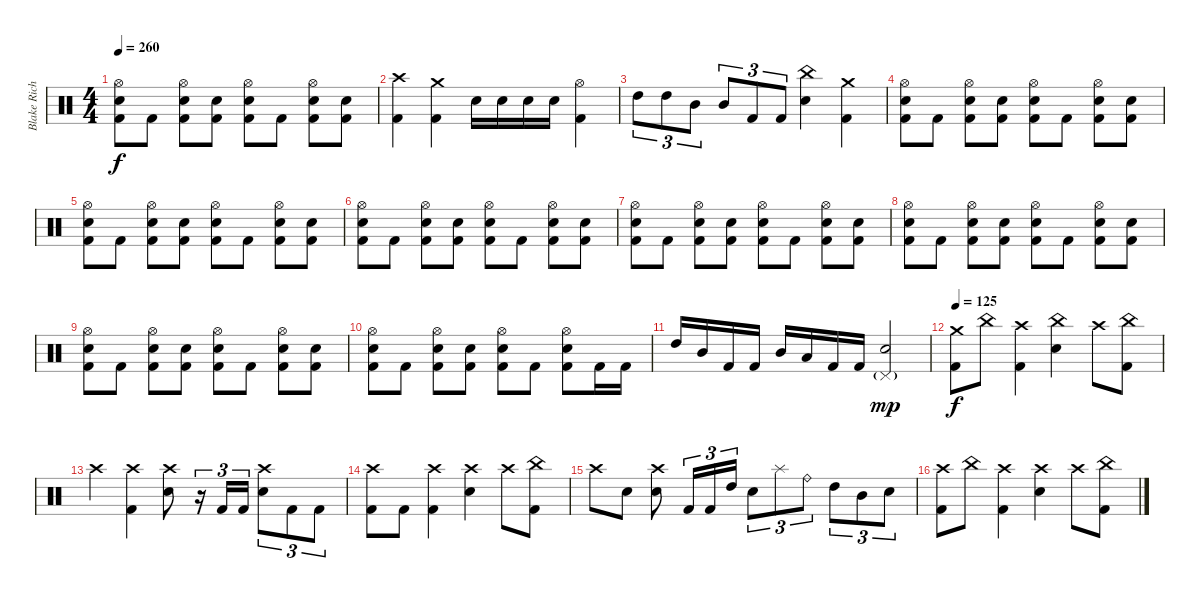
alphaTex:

\track ("Blake Richardson - Drums" "Blake Rich") {instrument percussion}
\staff {score}
\articulation defaults
\ts (4 4)
\tempo 260
\clef neutral
\ks c
("Hi-Hat (open)" "Electric Snare (hit)" "Kick (hit) 2").8{dy f} "Kick (hit) 2".8 ("Hi-Hat (open)" "Electric Snare (hit)" "Kick (hit) 2").8 ("Electric Snare (hit)" "Kick (hit) 2").8 ("Hi-Hat (open)" "Electric Snare (hit)" "Kick (hit) 2").8 "Kick (hit) 2".8 ("Hi-Hat (open)" "Electric Snare (hit)" "Kick (hit) 2").8 ("Electric Snare (hit)" "Kick (hit) 2").8 |
("Crash high (hit)" "Kick (hit) 2").4 ("Crash medium (hit)" "Kick (hit) 2").4 "Electric Snare (hit)".16 "Electric Snare (hit)".16 "Electric Snare (hit)".16 "Electric Snare (hit)".16 ("Hi-Hat (open)" "Kick (hit) 2").4 |
"High Tom (hit)".8{tu (3 2)} "High Tom (hit)".8{tu (3 2)} "Mid Tom (hit)".8{tu (3 2)} "Mid Tom (hit)".8{tu (3 2)} "Kick (hit) 2".8{tu (3 2)} "Kick (hit) 2".8{tu (3 2)} ("China (hit)" "Electric Snare (hit)").4 ("Crash medium (hit)" "Kick (hit) 2").4 |
("Hi-Hat (open)" "Electric Snare (hit)" "Kick (hit) 2").8 "Kick (hit) 2".8 ("Hi-Hat (open)" "Electric Snare (hit)" "Kick (hit) 2").8 ("Electric Snare (hit)" "Kick (hit) 2").8 ("Hi-Hat (open)" "Electric Snare (hit)" "Kick (hit) 2").8 "Kick (hit) 2".8 ("Hi-Hat (open)" "Electric Snare (hit)" "Kick (hit) 2").8 ("Electric Snare (hit)" "Kick (hit) 2").8 |
("Hi-Hat (open)" "Electric Snare (hit)" "Kick (hit) 2").8 "Kick (hit) 2".8 ("Hi-Hat (open)" "Electric Snare (hit)" "Kick (hit) 2").8 ("Electric Snare (hit)" "Kick (hit) 2").8 ("Hi-Hat (open)" "Electric Snare (hit)" "Kick (hit) 2").8 "Kick (hit) 2".8 ("Hi-Hat (open)" "Electric Snare (hit)" "Kick (hit) 2").8 ("Electric Snare (hit)" "Kick (hit) 2").8 |
("Hi-Hat (open)" "Electric Snare (hit)" "Kick (hit) 2").8 "Kick (hit) 2".8 ("Hi-Hat (open)" "Electric Snare (hit)" "Kick (hit) 2").8 ("Electric Snare (hit)" "Kick (hit) 2").8 ("Hi-Hat (open)" "Electric Snare (hit)" "Kick (hit) 2").8 "Kick (hit) 2".8 ("Hi-Hat (open)" "Electric Snare (hit)" "Kick (hit) 2").8 ("Electric Snare (hit)" "Kick (hit) 2").8 |
("Hi-Hat (open)" "Electric Snare (hit)" "Kick (hit) 2").8 "Kick (hit) 2".8 ("Hi-Hat (open)" "Electric Snare (hit)" "Kick (hit) 2").8 ("Electric Snare (hit)" "Kick (hit) 2").8 ("Hi-Hat (open)" "Electric Snare (hit)" "Kick (hit) 2").8 "Kick (hit) 2".8 ("Hi-Hat (open)" "Electric Snare (hit)" "Kick (hit) 2").8 ("Electric Snare (hit)" "Kick (hit) 2").8 |
("Hi-Hat (open)" "Electric Snare (hit)" "Kick (hit) 2").8 "Kick (hit) 2".8 ("Hi-Hat (open)" "Electric Snare (hit)" "Kick (hit) 2").8 ("Electric Snare (hit)" "Kick (hit) 2").8 ("Hi-Hat (open)" "Electric Snare (hit)" "Kick (hit) 2").8 "Kick (hit) 2".8 ("Hi-Hat (open)" "Electric Snare (hit)" "Kick (hit) 2").8 ("Electric Snare (hit)" "Kick (hit) 2").8 |
("Hi-Hat (open)" "Electric Snare (hit)" "Kick (hit) 2").8 "Kick (hit) 2".8 ("Hi-Hat (open)" "Electric Snare (hit)" "Kick (hit) 2").8 ("Electric Snare (hit)" "Kick (hit) 2").8 ("Hi-Hat (open)" "Electric Snare (hit)" "Kick (hit) 2").8 "Kick (hit) 2".8 ("Hi-Hat (open)" "Electric Snare (hit)" "Kick (hit) 2").8 ("Electric Snare (hit)" "Kick (hit) 2").8 |
("Hi-Hat (open)" "Electric Snare (hit)" "Kick (hit) 2").8 "Kick (hit) 2".8 ("Hi-Hat (open)" "Electric Snare (hit)" "Kick (hit) 2").8 ("Electric Snare (hit)" "Kick (hit) 2").8 ("Hi-Hat (open)" "Electric Snare (hit)" "Kick (hit) 2").8 "Kick (hit) 2".8 ("Hi-Hat (open)" "Electric Snare (hit)" "Kick (hit) 2").8 "Kick (hit) 2".16 "Kick (hit) 2".16 |
"High Tom (hit)".16 "Mid Tom (hit)".16 "Kick (hit) 2".16 "Kick (hit) 2".16 "Mid Tom (hit)".16 "Low Tom (hit)".16 "Kick (hit) 2".16 "Kick (hit) 2".16 ("Electric Snare (hit)" "Pedal Hi-Hat (hit)"{g}).2{dy mp} |
\tempo 125
("Crash medium (hit)" "Kick (hit) 2").8{dy f} "China (hit)".8 ("Crash high (hit)" "Kick (hit) 2").4 ("China (hit)" "Electric Snare (hit)").4 "Crash high (hit)".8 ("China (hit)" "Kick (hit) 2").8 |
"Crash high (hit)".4 ("Crash high (hit)" "Kick (hit) 2").4 ("Crash high (hit)" "Electric Snare (hit)").8 r.16{tu (3 2)} "Kick (hit) 2".16{tu (3 2)} "Kick (hit) 2".16{tu (3 2)} ("Crash high (hit)" "Electric Snare (hit)").8{tu (3 2)} "Kick (hit) 2".8{tu (3 2)} "Kick (hit) 2".8{tu (3 2)} |
("Crash high (hit)" "Kick (hit) 2").8 "Kick (hit) 2".8 ("Crash high (hit)" "Kick (hit) 2").4 ("Crash high (hit)" "Electric Snare (hit)").4 "Crash high (hit)".8 ("China (hit)" "Kick (hit) 2").8 |
"Crash high (hit)".8 "Electric Snare (hit)".8 ("Crash high (hit)" "Electric Snare (hit)").8 "Kick (hit) 2".16{tu (3 2)} "Kick (hit) 2".16{tu (3 2)} "High Tom (hit)".16{tu (3 2)} "Electric Snare (hit)".8{tu (3 2)} "Splash (hit)".8{tu (3 2)} "Ride (bell)".8{tu (3 2)} "High Tom (hit)".8{tu (3 2)} "Mid Tom (hit)".8{tu (3 2)} "Electric Snare (hit)".8{tu (3 2)} |
("Crash high (hit)" "Kick (hit) 2").8 "China (hit)".8 ("Crash high (hit)" "Kick (hit) 2").4 ("Crash high (hit)" "Electric Snare (hit)").4 "Crash high (hit)".8 ("China (hit)" "Kick (hit) 2").8
